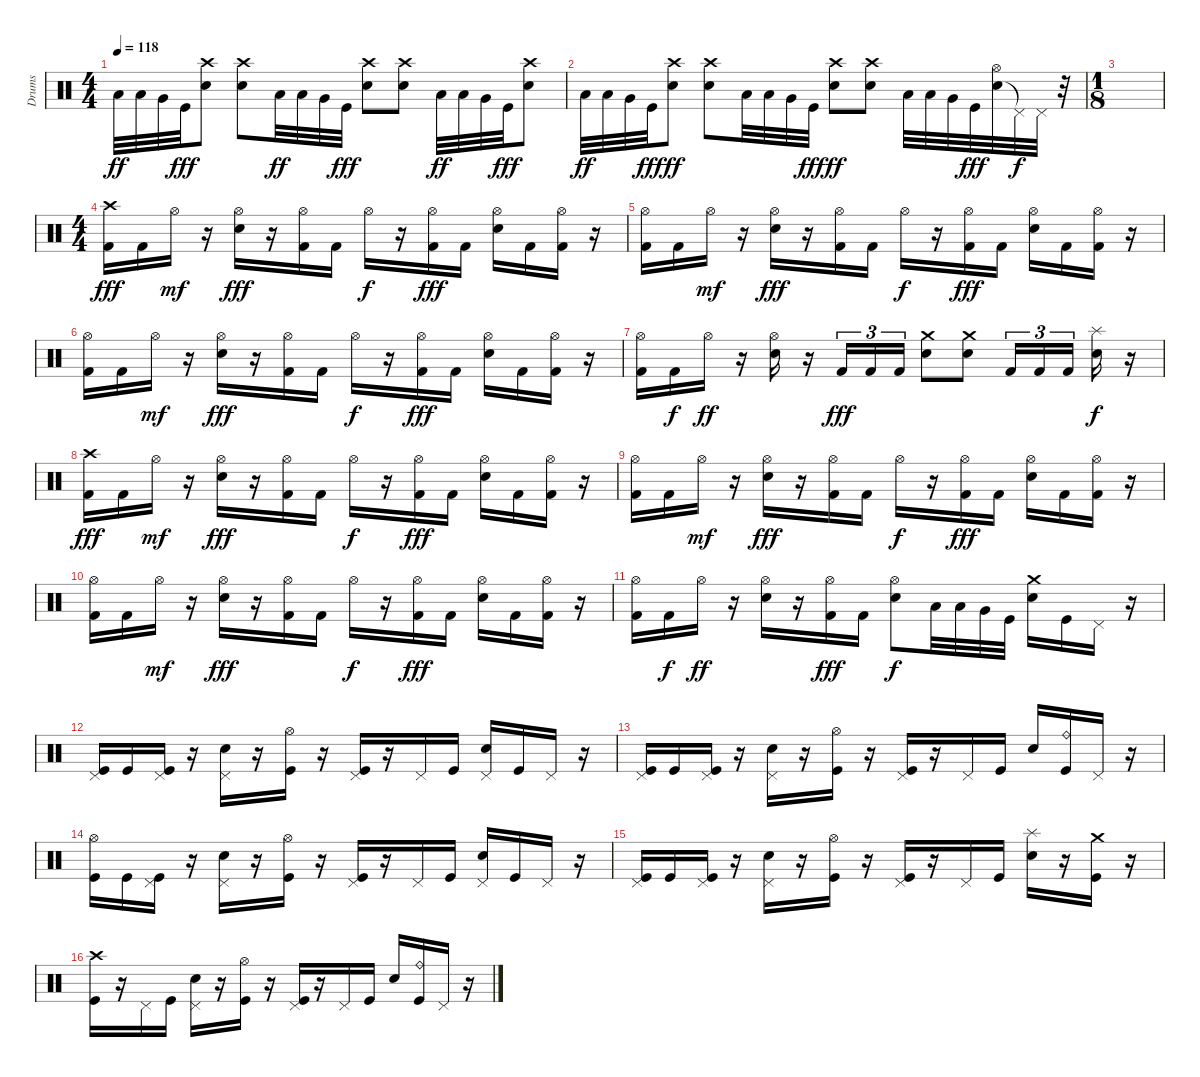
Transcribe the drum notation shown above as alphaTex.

\track ("Drums" "Drums") {instrument percussion}
\staff {score}
\articulation defaults
\ts (4 4)
\tempo 118
\clef neutral
\ks c "Low Floor Tom (hit)".32{dy ff} "Low Tom (hit)".32 "Very Low Tom (hit)".32 "Kick (hit)".32{dy fff}
("Electric Snare (hit)" "Crash high (hit)").8 ("Electric Snare (hit)" "Crash high (hit)").8 "Low Floor Tom (hit)".32{dy ff} "Low Tom (hit)".32 "Very Low Tom (hit)".32 "Kick (hit)".32{dy fff} ("Electric Snare (hit)" "Crash high (hit)").8 ("Electric Snare (hit)" "Crash high (hit)").8 "Low Floor Tom (hit)".32{dy ff} "Low Tom (hit)".32 "Very Low Tom (hit)".32 "Kick (hit)".32{dy fff} ("Electric Snare (hit)" "Crash high (hit)").8 |
"Low Floor Tom (hit)".32{dy ff} "Low Tom (hit)".32 "Very Low Tom (hit)".32 "Kick (hit)".32{dy fff} ("Electric Snare (hit)" "Crash high (hit)").8{dy ff} ("Electric Snare (hit)" "Crash high (hit)").8 "Low Floor Tom (hit)".32 "Low Tom (hit)".32 "Very Low Tom (hit)".32 "Kick (hit)".32{dy fff} ("Electric Snare (hit)" "Crash high (hit)").8{dy ff} ("Electric Snare (hit)" "Crash high (hit)").8 "Low Floor Tom (hit)".32 "Low Tom (hit)".32 "Very Low Tom (hit)".32 "Kick (hit)".32{dy fff} ("Electric Snare (hit)" "Hi-Hat (open)").32 "Pedal Hi-Hat (hit)"{t}.32{dy f} "Pedal Hi-Hat (hit)".32 r.32 |
\ts (1 8)
|
\ts (4 4)
("Crash high (hit)" "Kick (hit) 2").16{dy fff} "Kick (hit) 2".16 "Hi-Hat (open)".16{dy mf} r.16 ("Hi-Hat (open)" "Electric Snare (hit)").16{dy fff} r.16 ("Hi-Hat (open)" "Kick (hit) 2").16 "Kick (hit) 2".16 "Hi-Hat (open)".16{dy f} r.16 ("Hi-Hat (open)" "Kick (hit) 2").16{dy fff} "Kick (hit) 2".16 ("Hi-Hat (open)" "Electric Snare (hit)").16 "Kick (hit) 2".16 ("Hi-Hat (open)" "Kick (hit) 2").16 r.16 |
("Hi-Hat (open)" "Kick (hit) 2").16 "Kick (hit) 2".16 "Hi-Hat (open)".16{dy mf} r.16 ("Hi-Hat (open)" "Electric Snare (hit)").16{dy fff} r.16 ("Hi-Hat (open)" "Kick (hit) 2").16 "Kick (hit) 2".16 "Hi-Hat (open)".16{dy f} r.16 ("Hi-Hat (open)" "Kick (hit) 2").16{dy fff} "Kick (hit) 2".16 ("Hi-Hat (open)" "Electric Snare (hit)").16 "Kick (hit) 2".16 ("Hi-Hat (open)" "Kick (hit) 2").16 r.16 |
("Hi-Hat (open)" "Kick (hit) 2").16 "Kick (hit) 2".16 "Hi-Hat (open)".16{dy mf} r.16 ("Hi-Hat (open)" "Electric Snare (hit)").16{dy fff} r.16 ("Hi-Hat (open)" "Kick (hit) 2").16 "Kick (hit) 2".16 "Hi-Hat (open)".16{dy f} r.16 ("Hi-Hat (open)" "Kick (hit) 2").16{dy fff} "Kick (hit) 2".16 ("Hi-Hat (open)" "Electric Snare (hit)").16 "Kick (hit) 2".16 ("Hi-Hat (open)" "Kick (hit) 2").16 r.16 |
("Hi-Hat (open)" "Kick (hit) 2").16 "Kick (hit) 2".16{dy f} "Hi-Hat (open)".16{dy ff} r.16 ("Hi-Hat (open)" "Electric Snare (hit)").16 r.16 "Kick (hit) 2".16{tu (3 2) dy fff} "Kick (hit) 2".16{tu (3 2)} "Kick (hit) 2".16{tu (3 2)} ("Crash medium (hit)" "Electric Snare (hit)").8 ("Crash medium (hit)" "Electric Snare (hit)").8 "Kick (hit) 2".16{tu (3 2)} "Kick (hit) 2".16{tu (3 2)} "Kick (hit) 2".16{tu (3 2)} ("Splash (hit)" "Electric Snare (hit)").16{dy f} r.16 |
("Crash high (hit)" "Kick (hit) 2").16{dy fff} "Kick (hit) 2".16 "Hi-Hat (open)".16{dy mf} r.16 ("Hi-Hat (open)" "Electric Snare (hit)").16{dy fff} r.16 ("Hi-Hat (open)" "Kick (hit) 2").16 "Kick (hit) 2".16 "Hi-Hat (open)".16{dy f} r.16 ("Hi-Hat (open)" "Kick (hit) 2").16{dy fff} "Kick (hit) 2".16 ("Hi-Hat (open)" "Electric Snare (hit)").16 "Kick (hit) 2".16 ("Hi-Hat (open)" "Kick (hit) 2").16 r.16 |
("Hi-Hat (open)" "Kick (hit) 2").16 "Kick (hit) 2".16 "Hi-Hat (open)".16{dy mf} r.16 ("Hi-Hat (open)" "Electric Snare (hit)").16{dy fff} r.16 ("Hi-Hat (open)" "Kick (hit) 2").16 "Kick (hit) 2".16 "Hi-Hat (open)".16{dy f} r.16 ("Hi-Hat (open)" "Kick (hit) 2").16{dy fff} "Kick (hit) 2".16 ("Hi-Hat (open)" "Electric Snare (hit)").16 "Kick (hit) 2".16 ("Hi-Hat (open)" "Kick (hit) 2").16 r.16 |
("Hi-Hat (open)" "Kick (hit) 2").16 "Kick (hit) 2".16 "Hi-Hat (open)".16{dy mf} r.16 ("Hi-Hat (open)" "Electric Snare (hit)").16{dy fff} r.16 ("Hi-Hat (open)" "Kick (hit) 2").16 "Kick (hit) 2".16 "Hi-Hat (open)".16{dy f} r.16 ("Hi-Hat (open)" "Kick (hit) 2").16{dy fff} "Kick (hit) 2".16 ("Hi-Hat (open)" "Electric Snare (hit)").16 "Kick (hit) 2".16 ("Hi-Hat (open)" "Kick (hit) 2").16 r.16 |
("Hi-Hat (open)" "Kick (hit) 2").16 "Kick (hit) 2".16{dy f} "Hi-Hat (open)".16{dy ff} r.16 ("Hi-Hat (open)" "Electric Snare (hit)").16 r.16 ("Hi-Hat (open)" "Kick (hit) 2").16{dy fff} "Kick (hit) 2".16 ("Hi-Hat (open)" "Electric Snare (hit)").8{dy f} "Low Floor Tom (hit)".32 "Low Tom (hit)".32 "Very Low Tom (hit)".32 "Kick (hit)".32 ("Crash medium (hit)" "Electric Snare (hit)").16 "Kick (hit)".16 "Pedal Hi-Hat (hit)".16 r.16 |
("Pedal Hi-Hat (hit)" "Kick (hit)").16 "Kick (hit)".16 ("Pedal Hi-Hat (hit)" "Kick (hit)").16 r.16 ("Pedal Hi-Hat (hit)" "Electric Snare (hit)").16 r.16 ("Hi-Hat (open)" "Kick (hit)").16 r.16 ("Pedal Hi-Hat (hit)" "Kick (hit)").16 r.16 "Pedal Hi-Hat (hit)".16 "Kick (hit)".16 ("Pedal Hi-Hat (hit)" "Electric Snare (hit)").16 "Kick (hit)".16 "Pedal Hi-Hat (hit)".16 r.16 |
("Pedal Hi-Hat (hit)" "Kick (hit)").16 "Kick (hit)".16 ("Pedal Hi-Hat (hit)" "Kick (hit)").16 r.16 ("Pedal Hi-Hat (hit)" "Electric Snare (hit)").16 r.16 ("Hi-Hat (open)" "Kick (hit)").16 r.16 ("Pedal Hi-Hat (hit)" "Kick (hit)").16 r.16 "Pedal Hi-Hat (hit)".16 "Kick (hit)".16 "Electric Snare (hit)".16 ("Ride (bell)" "Kick (hit)").16 "Pedal Hi-Hat (hit)".16 r.16 |
("Hi-Hat (open)" "Kick (hit)").16 "Kick (hit)".16 ("Pedal Hi-Hat (hit)" "Kick (hit)").16 r.16 ("Pedal Hi-Hat (hit)" "Electric Snare (hit)").16 r.16 ("Hi-Hat (open)" "Kick (hit)").16 r.16 ("Pedal Hi-Hat (hit)" "Kick (hit)").16 r.16 "Pedal Hi-Hat (hit)".16 "Kick (hit)".16 ("Pedal Hi-Hat (hit)" "Electric Snare (hit)").16 "Kick (hit)".16 "Pedal Hi-Hat (hit)".16 r.16 |
("Pedal Hi-Hat (hit)" "Kick (hit)").16 "Kick (hit)".16 ("Pedal Hi-Hat (hit)" "Kick (hit)").16 r.16 ("Pedal Hi-Hat (hit)" "Electric Snare (hit)").16 r.16 ("Hi-Hat (open)" "Kick (hit)").16 r.16 ("Pedal Hi-Hat (hit)" "Kick (hit)").16 r.16 "Pedal Hi-Hat (hit)".16 "Kick (hit)".16 ("Splash (hit)" "Electric Snare (hit)").16 r.16 ("Crash medium (hit)" "Kick (hit)").16 r.16 |
("Crash high (hit)" "Kick (hit)").16 r.16 "Pedal Hi-Hat (hit)".16 "Kick (hit)".16 ("Pedal Hi-Hat (hit)" "Electric Snare (hit)").16 r.16 ("Hi-Hat (open)" "Kick (hit)").16 r.16 ("Pedal Hi-Hat (hit)" "Kick (hit)").16 r.16 "Pedal Hi-Hat (hit)".16 "Kick (hit)".16 "Electric Snare (hit)".16 ("Ride (bell)" "Kick (hit)").16 "Pedal Hi-Hat (hit)".16 r.16
